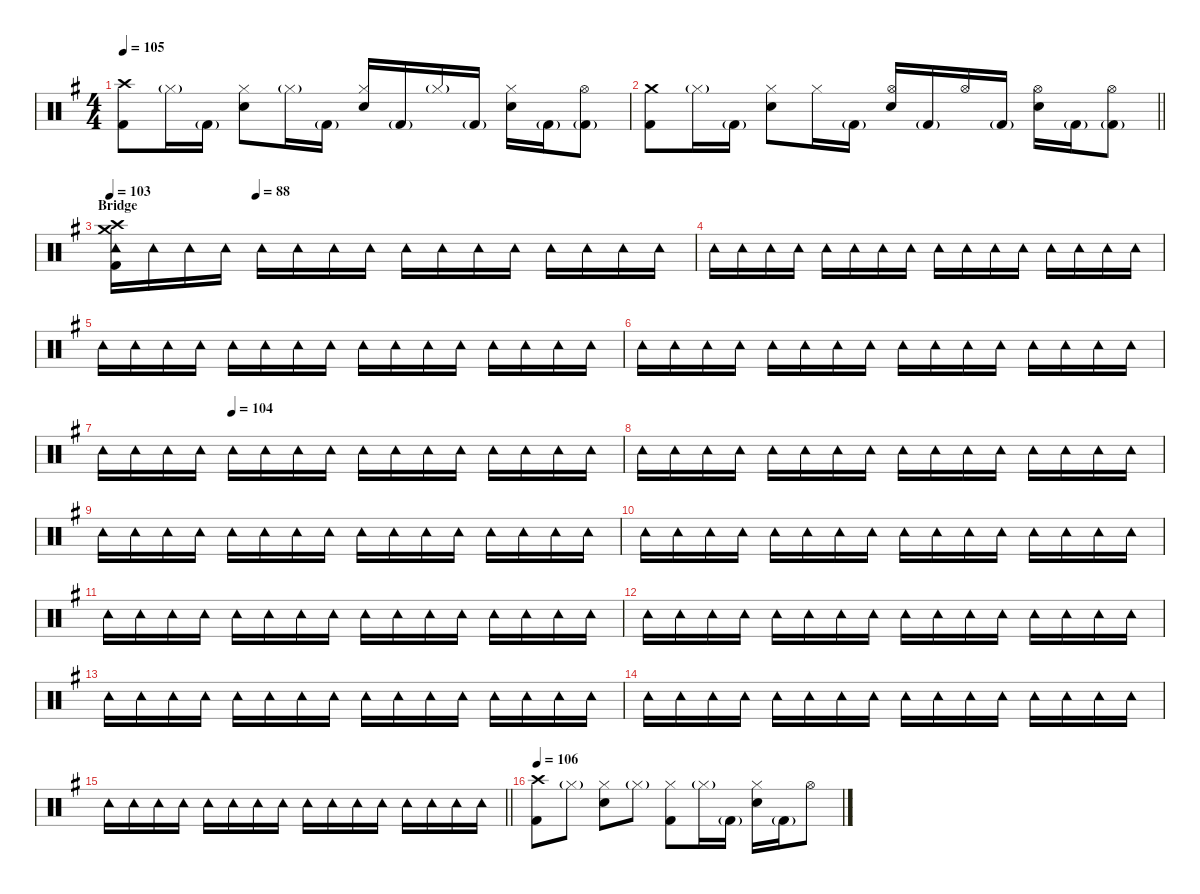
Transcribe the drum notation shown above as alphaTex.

\defaultSystemsLayout 4
\hideDynamics
\bracketExtendMode nobrackets
\singleTrackTrackNamePolicy hidden
\multiTrackTrackNamePolicy hidden
\firstSystemTrackNameMode fullname
\firstSystemTrackNameOrientation horizontal
\otherSystemsTrackNameOrientation horizontal
\track ("Bill" "drm.") {instrument percussion}
\staff {score}
\articulation defaults
\ts (4 4)
\tempo 105
\clef neutral
\ks eminor
("Crash high (hit)"{acc forcenatural} "Kick (hit) 2"{acc forcenatural}).8{dy f beam Down} "Hi-Hat (closed)"{g acc forcenatural}.16{dy mf beam Down} "Kick (hit) 2"{g acc forcenatural}.16{beam Down} ("Hi-Hat (closed)"{acc forcenatural} "Snare (hit) 2"{acc forcenatural}).8{dy f beam Down} "Hi-Hat (closed)"{g acc forcenatural}.16{dy mf beam Down} "Kick (hit) 2"{g acc forcenatural}.16{beam Down} ("Hi-Hat (closed)"{acc forcenatural} "Snare (hit) 2"{acc forcenatural}).16{dy f beam Up} "Kick (hit) 2"{g acc forcenatural}.16{dy mf beam Up} "Hi-Hat (closed)"{g acc forcenatural}.16{beam Up} "Kick (hit) 2"{g acc forcenatural}.16{beam Up} ("Hi-Hat (closed)"{acc forcenatural} "Snare (hit) 2"{acc forcenatural}).16{dy f beam Down} "Kick (hit) 2"{g acc forcenatural}.16{dy mf beam Down} ("Hi-Hat (open)"{acc forcenatural} "Kick (hit) 2"{g acc forcenatural}).8{dy f beam Down} |
\barLineRight lightlight
("Crash medium (hit)"{acc forcenatural} "Kick (hit) 2"{acc forcenatural}).8{beam Down} "Hi-Hat (closed)"{g acc forcenatural}.16{dy mf beam Down} "Kick (hit) 2"{g acc forcenatural}.16{beam Down} ("Hi-Hat (closed)"{acc forcenatural} "Snare (hit) 2"{acc forcenatural}).8{dy f beam Down} "Hi-Hat (closed)"{acc forcenatural}.16{beam Down} "Kick (hit) 2"{g acc forcenatural}.16{dy mf beam Down} ("Hi-Hat (open)"{acc forcenatural} "Snare (hit) 2"{acc forcenatural}).16{dy f beam Up} "Kick (hit) 2"{g acc forcenatural}.16{dy mf beam Up} "Hi-Hat (open)"{acc forcenatural}.16{beam Up} "Kick (hit) 2"{g acc forcenatural}.16{beam Up} ("Hi-Hat (open)"{acc forcenatural} "Snare (hit) 2"{acc forcenatural}).16{dy f beam Down} "Kick (hit) 2"{g acc forcenatural}.16{dy mf beam Down} ("Hi-Hat (open)"{acc forcenatural} "Kick (hit) 2"{g acc forcenatural}).8{beam Down} |
\section ("" "Bridge")
\tempo 103
\tempo (88 0.25)
("Crash high (hit)"{acc forcenatural} "Crash medium (hit)"{acc forcenatural} "Tambourine (hit)"{acc forcenatural} "Kick (hit) 2"{acc forcenatural}).16{dy f beam Down} "Tambourine (hit)"{acc forcenatural}.16{dy pp beam Down} "Tambourine (hit)"{acc forcenatural}.16{dy p beam Down} "Tambourine (hit)"{acc forcenatural}.16{dy pp beam Down} "Tambourine (hit)"{acc forcenatural}.16{dy mp beam Down} "Tambourine (hit)"{acc forcenatural}.16{dy pp beam Down} "Tambourine (hit)"{acc forcenatural}.16{dy p beam Down} "Tambourine (hit)"{acc forcenatural}.16{dy pp beam Down} "Tambourine (hit)"{acc forcenatural}.16{dy mp beam Down} "Tambourine (hit)"{acc forcenatural}.16{dy pp beam Down} "Tambourine (hit)"{acc forcenatural}.16{dy p beam Down} "Tambourine (hit)"{acc forcenatural}.16{dy pp beam Down} "Tambourine (hit)"{acc forcenatural}.16{dy mp beam Down} "Tambourine (hit)"{acc forcenatural}.16{dy pp beam Down} "Tambourine (hit)"{acc forcenatural}.16{dy p beam Down} "Tambourine (hit)"{acc forcenatural}.16{dy pp beam Down} |
"Tambourine (hit)"{acc forcenatural}.16{dy mp beam Down} "Tambourine (hit)"{acc forcenatural}.16{dy pp beam Down} "Tambourine (hit)"{acc forcenatural}.16{dy p beam Down} "Tambourine (hit)"{acc forcenatural}.16{dy pp beam Down} "Tambourine (hit)"{acc forcenatural}.16{dy mp beam Down} "Tambourine (hit)"{acc forcenatural}.16{dy pp beam Down} "Tambourine (hit)"{acc forcenatural}.16{dy p beam Down} "Tambourine (hit)"{acc forcenatural}.16{dy pp beam Down} "Tambourine (hit)"{acc forcenatural}.16{dy mp beam Down} "Tambourine (hit)"{acc forcenatural}.16{dy pp beam Down} "Tambourine (hit)"{acc forcenatural}.16{dy p beam Down} "Tambourine (hit)"{acc forcenatural}.16{dy pp beam Down} "Tambourine (hit)"{acc forcenatural}.16{dy mp beam Down} "Tambourine (hit)"{acc forcenatural}.16{dy pp beam Down} "Tambourine (hit)"{acc forcenatural}.16{dy p beam Down} "Tambourine (hit)"{acc forcenatural}.16{dy pp beam Down} |
"Tambourine (hit)"{acc forcenatural}.16{dy mp beam Down} "Tambourine (hit)"{acc forcenatural}.16{dy pp beam Down} "Tambourine (hit)"{acc forcenatural}.16{dy p beam Down} "Tambourine (hit)"{acc forcenatural}.16{dy pp beam Down} "Tambourine (hit)"{acc forcenatural}.16{dy mp beam Down} "Tambourine (hit)"{acc forcenatural}.16{dy pp beam Down} "Tambourine (hit)"{acc forcenatural}.16{dy p beam Down} "Tambourine (hit)"{acc forcenatural}.16{dy pp beam Down} "Tambourine (hit)"{acc forcenatural}.16{dy mp beam Down} "Tambourine (hit)"{acc forcenatural}.16{dy pp beam Down} "Tambourine (hit)"{acc forcenatural}.16{dy p beam Down} "Tambourine (hit)"{acc forcenatural}.16{dy pp beam Down} "Tambourine (hit)"{acc forcenatural}.16{dy mp beam Down} "Tambourine (hit)"{acc forcenatural}.16{dy pp beam Down} "Tambourine (hit)"{acc forcenatural}.16{dy p beam Down} "Tambourine (hit)"{acc forcenatural}.16{dy pp beam Down} |
"Tambourine (hit)"{acc forcenatural}.16{dy mp beam Down} "Tambourine (hit)"{acc forcenatural}.16{dy pp beam Down} "Tambourine (hit)"{acc forcenatural}.16{dy p beam Down} "Tambourine (hit)"{acc forcenatural}.16{dy pp beam Down} "Tambourine (hit)"{acc forcenatural}.16{dy mp beam Down} "Tambourine (hit)"{acc forcenatural}.16{dy pp beam Down} "Tambourine (hit)"{acc forcenatural}.16{dy p beam Down} "Tambourine (hit)"{acc forcenatural}.16{dy pp beam Down} "Tambourine (hit)"{acc forcenatural}.16{dy mp beam Down} "Tambourine (hit)"{acc forcenatural}.16{dy pp beam Down} "Tambourine (hit)"{acc forcenatural}.16{dy p beam Down} "Tambourine (hit)"{acc forcenatural}.16{dy pp beam Down} "Tambourine (hit)"{acc forcenatural}.16{dy mp beam Down} "Tambourine (hit)"{acc forcenatural}.16{dy pp beam Down} "Tambourine (hit)"{acc forcenatural}.16{dy p beam Down} "Tambourine (hit)"{acc forcenatural}.16{dy pp beam Down} |
\tempo (104 0.25)
"Tambourine (hit)"{acc forcenatural}.16{dy mp beam Down} "Tambourine (hit)"{acc forcenatural}.16{dy pp beam Down} "Tambourine (hit)"{acc forcenatural}.16{dy p beam Down} "Tambourine (hit)"{acc forcenatural}.16{dy pp beam Down} "Tambourine (hit)"{acc forcenatural}.16{dy mp beam Down} "Tambourine (hit)"{acc forcenatural}.16{dy pp beam Down} "Tambourine (hit)"{acc forcenatural}.16{dy p beam Down} "Tambourine (hit)"{acc forcenatural}.16{dy pp beam Down} "Tambourine (hit)"{acc forcenatural}.16{dy mp beam Down} "Tambourine (hit)"{acc forcenatural}.16{dy pp beam Down} "Tambourine (hit)"{acc forcenatural}.16{dy p beam Down} "Tambourine (hit)"{acc forcenatural}.16{dy pp beam Down} "Tambourine (hit)"{acc forcenatural}.16{dy mp beam Down} "Tambourine (hit)"{acc forcenatural}.16{dy pp beam Down} "Tambourine (hit)"{acc forcenatural}.16{dy p beam Down} "Tambourine (hit)"{acc forcenatural}.16{dy pp beam Down} |
"Tambourine (hit)"{acc forcenatural}.16{dy mp beam Down} "Tambourine (hit)"{acc forcenatural}.16{dy pp beam Down} "Tambourine (hit)"{acc forcenatural}.16{dy p beam Down} "Tambourine (hit)"{acc forcenatural}.16{dy pp beam Down} "Tambourine (hit)"{acc forcenatural}.16{dy mp beam Down} "Tambourine (hit)"{acc forcenatural}.16{dy pp beam Down} "Tambourine (hit)"{acc forcenatural}.16{dy p beam Down} "Tambourine (hit)"{acc forcenatural}.16{dy pp beam Down} "Tambourine (hit)"{acc forcenatural}.16{dy mp beam Down} "Tambourine (hit)"{acc forcenatural}.16{dy pp beam Down} "Tambourine (hit)"{acc forcenatural}.16{dy p beam Down} "Tambourine (hit)"{acc forcenatural}.16{dy pp beam Down} "Tambourine (hit)"{acc forcenatural}.16{dy mp beam Down} "Tambourine (hit)"{acc forcenatural}.16{dy pp beam Down} "Tambourine (hit)"{acc forcenatural}.16{dy p beam Down} "Tambourine (hit)"{acc forcenatural}.16{dy pp beam Down} |
"Tambourine (hit)"{acc forcenatural}.16{dy mp beam Down} "Tambourine (hit)"{acc forcenatural}.16{dy pp beam Down} "Tambourine (hit)"{acc forcenatural}.16{dy p beam Down} "Tambourine (hit)"{acc forcenatural}.16{dy pp beam Down} "Tambourine (hit)"{acc forcenatural}.16{dy mp beam Down} "Tambourine (hit)"{acc forcenatural}.16{dy pp beam Down} "Tambourine (hit)"{acc forcenatural}.16{dy p beam Down} "Tambourine (hit)"{acc forcenatural}.16{dy pp beam Down} "Tambourine (hit)"{acc forcenatural}.16{dy mp beam Down} "Tambourine (hit)"{acc forcenatural}.16{dy pp beam Down} "Tambourine (hit)"{acc forcenatural}.16{dy p beam Down} "Tambourine (hit)"{acc forcenatural}.16{dy pp beam Down} "Tambourine (hit)"{acc forcenatural}.16{dy mp beam Down} "Tambourine (hit)"{acc forcenatural}.16{dy pp beam Down} "Tambourine (hit)"{acc forcenatural}.16{dy p beam Down} "Tambourine (hit)"{acc forcenatural}.16{dy pp beam Down} |
"Tambourine (hit)"{acc forcenatural}.16{dy mp beam Down} "Tambourine (hit)"{acc forcenatural}.16{dy pp beam Down} "Tambourine (hit)"{acc forcenatural}.16{dy p beam Down} "Tambourine (hit)"{acc forcenatural}.16{dy pp beam Down} "Tambourine (hit)"{acc forcenatural}.16{dy mp beam Down} "Tambourine (hit)"{acc forcenatural}.16{dy pp beam Down} "Tambourine (hit)"{acc forcenatural}.16{dy p beam Down} "Tambourine (hit)"{acc forcenatural}.16{dy pp beam Down} "Tambourine (hit)"{acc forcenatural}.16{dy mp beam Down} "Tambourine (hit)"{acc forcenatural}.16{dy pp beam Down} "Tambourine (hit)"{acc forcenatural}.16{dy p beam Down} "Tambourine (hit)"{acc forcenatural}.16{dy pp beam Down} "Tambourine (hit)"{acc forcenatural}.16{dy mp beam Down} "Tambourine (hit)"{acc forcenatural}.16{dy pp beam Down} "Tambourine (hit)"{acc forcenatural}.16{dy p beam Down} "Tambourine (hit)"{acc forcenatural}.16{dy pp beam Down} |
"Tambourine (hit)"{acc forcenatural}.16{dy mp beam Down} "Tambourine (hit)"{acc forcenatural}.16{dy pp beam Down} "Tambourine (hit)"{acc forcenatural}.16{dy p beam Down} "Tambourine (hit)"{acc forcenatural}.16{dy pp beam Down} "Tambourine (hit)"{acc forcenatural}.16{dy mp beam Down} "Tambourine (hit)"{acc forcenatural}.16{dy pp beam Down} "Tambourine (hit)"{acc forcenatural}.16{dy p beam Down} "Tambourine (hit)"{acc forcenatural}.16{dy pp beam Down} "Tambourine (hit)"{acc forcenatural}.16{dy mp beam Down} "Tambourine (hit)"{acc forcenatural}.16{dy pp beam Down} "Tambourine (hit)"{acc forcenatural}.16{dy p beam Down} "Tambourine (hit)"{acc forcenatural}.16{dy pp beam Down} "Tambourine (hit)"{acc forcenatural}.16{dy mp beam Down} "Tambourine (hit)"{acc forcenatural}.16{dy pp beam Down} "Tambourine (hit)"{acc forcenatural}.16{dy p beam Down} "Tambourine (hit)"{acc forcenatural}.16{dy pp beam Down} |
"Tambourine (hit)"{acc forcenatural}.16{dy mp beam Down} "Tambourine (hit)"{acc forcenatural}.16{dy pp beam Down} "Tambourine (hit)"{acc forcenatural}.16{dy p beam Down} "Tambourine (hit)"{acc forcenatural}.16{dy pp beam Down} "Tambourine (hit)"{acc forcenatural}.16{dy mp beam Down} "Tambourine (hit)"{acc forcenatural}.16{dy pp beam Down} "Tambourine (hit)"{acc forcenatural}.16{dy p beam Down} "Tambourine (hit)"{acc forcenatural}.16{dy pp beam Down} "Tambourine (hit)"{acc forcenatural}.16{dy mp beam Down} "Tambourine (hit)"{acc forcenatural}.16{dy pp beam Down} "Tambourine (hit)"{acc forcenatural}.16{dy p beam Down} "Tambourine (hit)"{acc forcenatural}.16{dy pp beam Down} "Tambourine (hit)"{acc forcenatural}.16{dy mp beam Down} "Tambourine (hit)"{acc forcenatural}.16{dy pp beam Down} "Tambourine (hit)"{acc forcenatural}.16{dy p beam Down} "Tambourine (hit)"{acc forcenatural}.16{dy pp beam Down} |
"Tambourine (hit)"{acc forcenatural}.16{dy mp beam Down} "Tambourine (hit)"{acc forcenatural}.16{dy pp beam Down} "Tambourine (hit)"{acc forcenatural}.16{dy p beam Down} "Tambourine (hit)"{acc forcenatural}.16{dy pp beam Down} "Tambourine (hit)"{acc forcenatural}.16{dy mp beam Down} "Tambourine (hit)"{acc forcenatural}.16{dy pp beam Down} "Tambourine (hit)"{acc forcenatural}.16{dy p beam Down} "Tambourine (hit)"{acc forcenatural}.16{dy pp beam Down} "Tambourine (hit)"{acc forcenatural}.16{dy mp beam Down} "Tambourine (hit)"{acc forcenatural}.16{dy pp beam Down} "Tambourine (hit)"{acc forcenatural}.16{dy p beam Down} "Tambourine (hit)"{acc forcenatural}.16{dy pp beam Down} "Tambourine (hit)"{acc forcenatural}.16{dy mp beam Down} "Tambourine (hit)"{acc forcenatural}.16{dy pp beam Down} "Tambourine (hit)"{acc forcenatural}.16{dy p beam Down} "Tambourine (hit)"{acc forcenatural}.16{dy pp beam Down} |
"Tambourine (hit)"{acc forcenatural}.16{dy mp beam Down} "Tambourine (hit)"{acc forcenatural}.16{dy pp beam Down} "Tambourine (hit)"{acc forcenatural}.16{dy p beam Down} "Tambourine (hit)"{acc forcenatural}.16{dy pp beam Down} "Tambourine (hit)"{acc forcenatural}.16{dy mp beam Down} "Tambourine (hit)"{acc forcenatural}.16{dy pp beam Down} "Tambourine (hit)"{acc forcenatural}.16{dy p beam Down} "Tambourine (hit)"{acc forcenatural}.16{dy pp beam Down} "Tambourine (hit)"{acc forcenatural}.16{dy mp beam Down} "Tambourine (hit)"{acc forcenatural}.16{dy pp beam Down} "Tambourine (hit)"{acc forcenatural}.16{dy p beam Down} "Tambourine (hit)"{acc forcenatural}.16{dy pp beam Down} "Tambourine (hit)"{acc forcenatural}.16{dy mp beam Down} "Tambourine (hit)"{acc forcenatural}.16{dy pp beam Down} "Tambourine (hit)"{acc forcenatural}.16{dy p beam Down} "Tambourine (hit)"{acc forcenatural}.16{dy pp beam Down} |
\barLineRight lightlight "Tambourine (hit)"{acc forcenatural}.16{dy mp beam Down} "Tambourine (hit)"{acc forcenatural}.16{dy pp beam Down} "Tambourine (hit)"{acc forcenatural}.16{dy p beam Down} "Tambourine (hit)"{acc forcenatural}.16{dy pp beam Down} "Tambourine (hit)"{acc forcenatural}.16{dy mp beam Down} "Tambourine (hit)"{acc forcenatural}.16{dy pp beam Down} "Tambourine (hit)"{acc forcenatural}.16{dy p beam Down} "Tambourine (hit)"{acc forcenatural}.16{dy pp beam Down} "Tambourine (hit)"{acc forcenatural}.16{dy mp beam Down} "Tambourine (hit)"{acc forcenatural}.16{dy pp beam Down} "Tambourine (hit)"{acc forcenatural}.16{dy p beam Down} "Tambourine (hit)"{acc forcenatural}.16{dy pp beam Down} "Tambourine (hit)"{acc forcenatural}.16{dy mp beam Down} "Tambourine (hit)"{acc forcenatural}.16{dy pp beam Down} "Tambourine (hit)"{acc forcenatural}.16{dy p beam Down} "Tambourine (hit)"{acc forcenatural}.16{dy pp beam Down}
|
\section ("" "")
\tempo 106
("Crash high (hit)"{acc forcenatural} "Kick (hit) 2"{acc forcenatural}).8{dy f beam Down} "Hi-Hat (closed)"{g acc forcenatural}.8{dy mf beam Down} ("Hi-Hat (closed)"{acc forcenatural} "Snare (hit) 2"{acc forcenatural}).8{dy f beam Down} "Hi-Hat (closed)"{g acc forcenatural}.8{dy mf beam Down} ("Hi-Hat (closed)"{acc forcenatural} "Kick (hit) 2"{acc forcenatural}).8{dy f beam Down} "Hi-Hat (closed)"{g acc forcenatural}.16{dy mf beam Down} "Kick (hit) 2"{g acc forcenatural}.16{beam Down} ("Hi-Hat (closed)"{acc forcenatural} "Snare (hit) 2"{acc forcenatural}).16{dy f beam Down} "Kick (hit) 2"{g acc forcenatural}.16{dy mf beam Down} "Hi-Hat (open)"{acc forcenatural}.8{beam Down}
